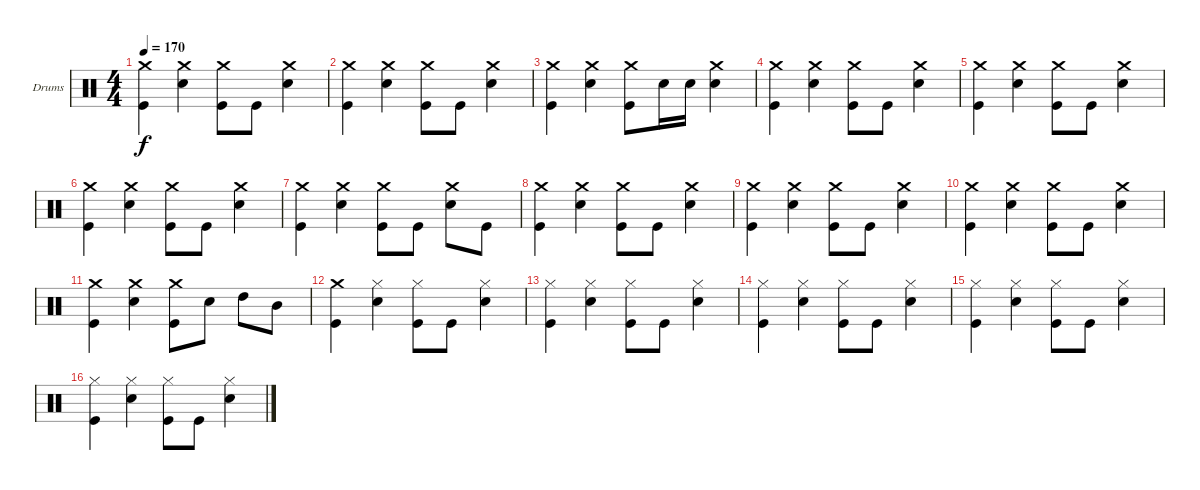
\defaultSystemsLayout 4
\bracketExtendMode groupsimilarinstruments
\firstSystemTrackNameOrientation horizontal
\otherSystemsTrackNameOrientation horizontal
\track ("Drumkit" "Drums") {instrument percussion}
\staff {score}
\articulation defaults
\ts (4 4)
\tempo 170
\clef neutral
\ks c
("Crash medium (hit)" "Kick (hit)").4{dy f} ("Crash medium (hit)" "Snare (hit) 2").4 ("Crash medium (hit)" "Kick (hit)").8 "Kick (hit)".8 ("Crash medium (hit)" "Snare (hit) 2").4 |
("Crash medium (hit)" "Kick (hit)").4 ("Crash medium (hit)" "Snare (hit) 2").4 ("Crash medium (hit)" "Kick (hit)").8 "Kick (hit)".8 ("Crash medium (hit)" "Snare (hit) 2").4 |
("Crash medium (hit)" "Kick (hit)").4 ("Crash medium (hit)" "Snare (hit) 2").4 ("Crash medium (hit)" "Kick (hit)").8 "Snare (hit) 2".16 "Snare (hit) 2".16 ("Crash medium (hit)" "Snare (hit) 2").4 |
("Crash medium (hit)" "Kick (hit)").4 ("Crash medium (hit)" "Snare (hit) 2").4 ("Crash medium (hit)" "Kick (hit)").8 "Kick (hit)".8 ("Crash medium (hit)" "Snare (hit) 2").4 |
("Crash medium (hit)" "Kick (hit)").4 ("Crash medium (hit)" "Snare (hit) 2").4 ("Crash medium (hit)" "Kick (hit)").8 "Kick (hit)".8 ("Crash medium (hit)" "Snare (hit) 2").4 |
("Crash medium (hit)" "Kick (hit)").4 ("Crash medium (hit)" "Snare (hit) 2").4 ("Crash medium (hit)" "Kick (hit)").8 "Kick (hit)".8 ("Crash medium (hit)" "Snare (hit) 2").4 |
("Crash medium (hit)" "Kick (hit)").4 ("Crash medium (hit)" "Snare (hit) 2").4 ("Crash medium (hit)" "Kick (hit)").8 "Kick (hit)".8 ("Crash medium (hit)" "Snare (hit) 2").8 "Kick (hit)".8 |
("Crash medium (hit)" "Kick (hit)").4 ("Crash medium (hit)" "Snare (hit) 2").4 ("Crash medium (hit)" "Kick (hit)").8 "Kick (hit)".8 ("Crash medium (hit)" "Snare (hit) 2").4 |
("Crash medium (hit)" "Kick (hit)").4 ("Crash medium (hit)" "Snare (hit) 2").4 ("Crash medium (hit)" "Kick (hit)").8 "Kick (hit)".8 ("Crash medium (hit)" "Snare (hit) 2").4 |
("Crash medium (hit)" "Kick (hit)").4 ("Crash medium (hit)" "Snare (hit) 2").4 ("Crash medium (hit)" "Kick (hit)").8 "Kick (hit)".8 ("Crash medium (hit)" "Snare (hit) 2").4 |
("Crash medium (hit)" "Kick (hit)").4 ("Crash medium (hit)" "Snare (hit) 2").4 ("Crash medium (hit)" "Kick (hit)").8 "Snare (hit) 2".8 "High Tom (hit)".8 "Mid Tom (hit)".8 |
("Crash medium (hit)" "Kick (hit)").4 ("Hi-Hat (closed)" "Snare (hit) 2").4 ("Hi-Hat (closed)" "Kick (hit)").8 "Kick (hit)".8 ("Hi-Hat (closed)" "Snare (hit) 2").4 |
("Hi-Hat (closed)" "Kick (hit)").4 ("Hi-Hat (closed)" "Snare (hit) 2").4 ("Hi-Hat (closed)" "Kick (hit)").8 "Kick (hit)".8 ("Hi-Hat (closed)" "Snare (hit) 2").4 |
("Hi-Hat (closed)" "Kick (hit)").4 ("Hi-Hat (closed)" "Snare (hit) 2").4 ("Hi-Hat (closed)" "Kick (hit)").8 "Kick (hit)".8 ("Hi-Hat (closed)" "Snare (hit) 2").4 |
("Hi-Hat (closed)" "Kick (hit)").4 ("Hi-Hat (closed)" "Snare (hit) 2").4 ("Hi-Hat (closed)" "Kick (hit)").8 "Kick (hit)".8 ("Hi-Hat (closed)" "Snare (hit) 2").4 |
("Hi-Hat (closed)" "Kick (hit)").4 ("Hi-Hat (closed)" "Snare (hit) 2").4 ("Hi-Hat (closed)" "Kick (hit)").8 "Kick (hit)".8 ("Hi-Hat (closed)" "Snare (hit) 2").4
